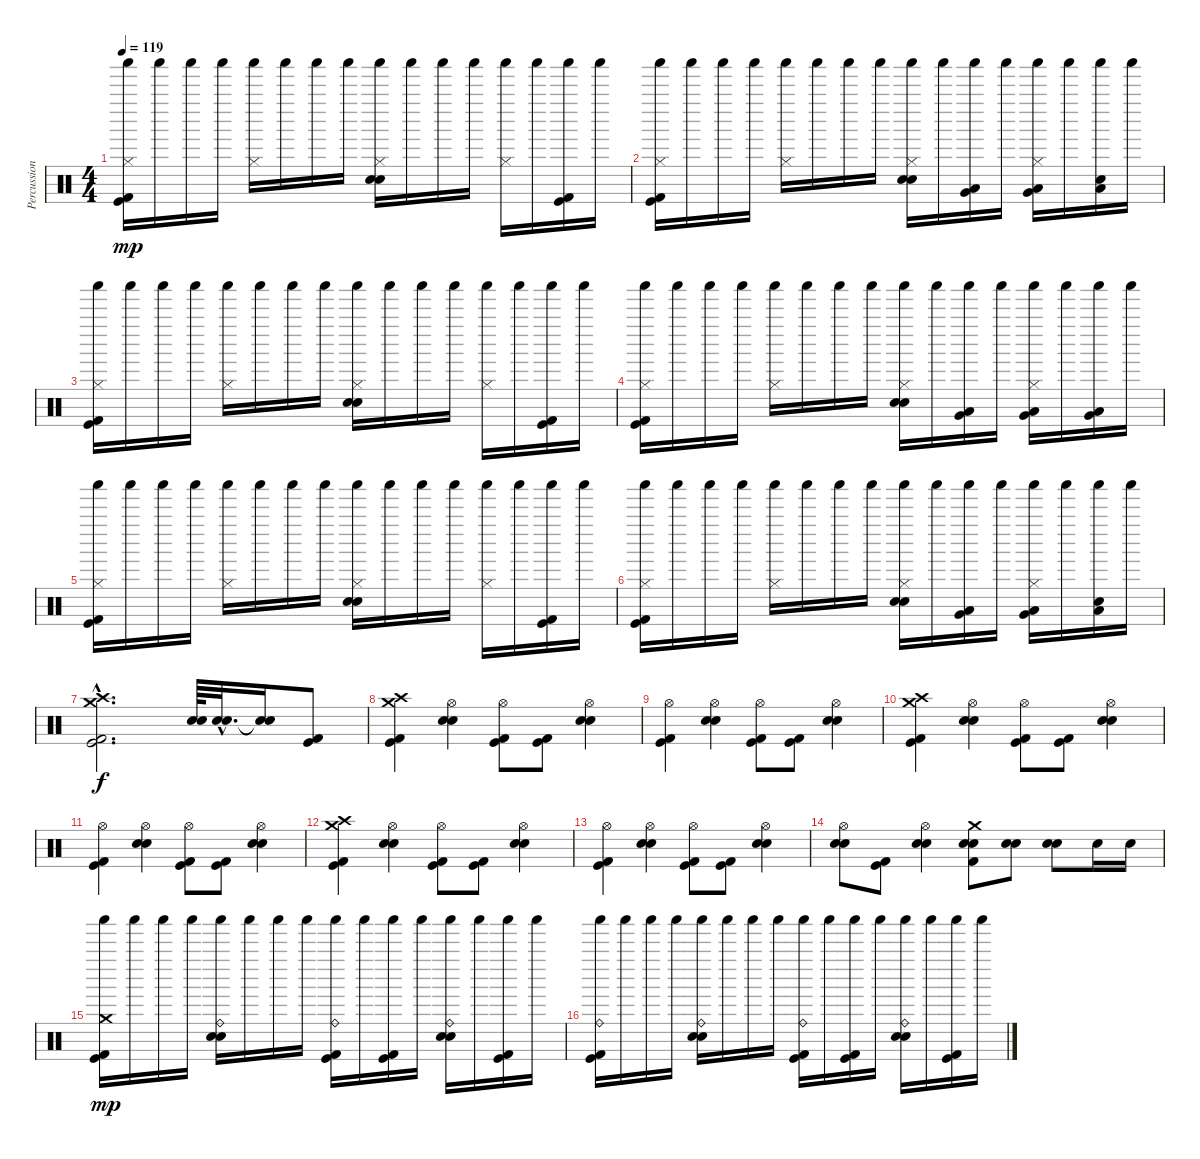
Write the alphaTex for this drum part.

\track ("Percussion" "Percussion") {instrument percussion}
\staff {score}
\articulation defaults
\ts (4 4)
\tempo 119
\clef neutral
\ks c
("Hi-Hat (closed)" "Kick (hit)" "Kick (hit) 2" "Shaker (hit)").16{dy mp} "Shaker (hit)".16 "Shaker (hit)".16 "Shaker (hit)".16 ("Hi-Hat (closed)" "Shaker (hit)").16 "Shaker (hit)".16 "Shaker (hit)".16 "Shaker (hit)".16 ("Hi-Hat (closed)" "Electric Snare (hit)" "Metronome (bell)" "Shaker (hit)").16 "Shaker (hit)".16 "Shaker (hit)".16 "Shaker (hit)".16 ("Hi-Hat (closed)" "Shaker (hit)").16 "Shaker (hit)".16 ("Kick (hit)" "Kick (hit) 2" "Shaker (hit)").16 "Shaker (hit)".16 |
("Hi-Hat (closed)" "Kick (hit)" "Kick (hit) 2" "Shaker (hit)").16 "Shaker (hit)".16 "Shaker (hit)".16 "Shaker (hit)".16 ("Hi-Hat (closed)" "Shaker (hit)").16 "Shaker (hit)".16 "Shaker (hit)".16 "Shaker (hit)".16 ("Hi-Hat (closed)" "Electric Snare (hit)" "Metronome (bell)" "Shaker (hit)").16 "Shaker (hit)".16 ("Low Tom (hit)" "Very Low Tom (hit)" "Shaker (hit)").16 "Shaker (hit)".16 ("Hi-Hat (closed)" "Very Low Tom (hit)" "Low Floor Tom (hit)" "Shaker (hit)").16 "Shaker (hit)".16 ("Low Floor Tom (hit)" "Snare (hit)" "Shaker (hit)").16 "Shaker (hit)".16 |
("Hi-Hat (closed)" "Kick (hit)" "Kick (hit) 2" "Shaker (hit)").16 "Shaker (hit)".16 "Shaker (hit)".16 "Shaker (hit)".16 ("Hi-Hat (closed)" "Shaker (hit)").16 "Shaker (hit)".16 "Shaker (hit)".16 "Shaker (hit)".16 ("Hi-Hat (closed)" "Electric Snare (hit)" "Metronome (bell)" "Shaker (hit)").16 "Shaker (hit)".16 "Shaker (hit)".16 "Shaker (hit)".16 ("Hi-Hat (closed)" "Shaker (hit)").16 "Shaker (hit)".16 ("Kick (hit)" "Kick (hit) 2" "Shaker (hit)").16 "Shaker (hit)".16 |
("Hi-Hat (closed)" "Kick (hit)" "Kick (hit) 2" "Shaker (hit)").16 "Shaker (hit)".16 "Shaker (hit)".16 "Shaker (hit)".16 ("Hi-Hat (closed)" "Shaker (hit)").16 "Shaker (hit)".16 "Shaker (hit)".16 "Shaker (hit)".16 ("Hi-Hat (closed)" "Electric Snare (hit)" "Metronome (bell)" "Shaker (hit)").16 "Shaker (hit)".16 ("Low Tom (hit)" "Very Low Tom (hit)" "Shaker (hit)").16 "Shaker (hit)".16 ("Hi-Hat (closed)" "Low Tom (hit)" "Very Low Tom (hit)" "Shaker (hit)").16 "Shaker (hit)".16 ("Very Low Tom (hit)" "Low Floor Tom (hit)" "Shaker (hit)").16 "Shaker (hit)".16 |
("Hi-Hat (closed)" "Kick (hit)" "Kick (hit) 2" "Shaker (hit)").16 "Shaker (hit)".16 "Shaker (hit)".16 "Shaker (hit)".16 ("Hi-Hat (closed)" "Shaker (hit)").16 "Shaker (hit)".16 "Shaker (hit)".16 "Shaker (hit)".16 ("Hi-Hat (closed)" "Electric Snare (hit)" "Metronome (bell)" "Shaker (hit)").16 "Shaker (hit)".16 "Shaker (hit)".16 "Shaker (hit)".16 ("Hi-Hat (closed)" "Shaker (hit)").16 "Shaker (hit)".16 ("Kick (hit)" "Kick (hit) 2" "Shaker (hit)").16 "Shaker (hit)".16 |
("Hi-Hat (closed)" "Kick (hit)" "Kick (hit) 2" "Shaker (hit)").16 "Shaker (hit)".16 "Shaker (hit)".16 "Shaker (hit)".16 ("Hi-Hat (closed)" "Shaker (hit)").16 "Shaker (hit)".16 "Shaker (hit)".16 "Shaker (hit)".16 ("Hi-Hat (closed)" "Electric Snare (hit)" "Metronome (bell)" "Shaker (hit)").16 "Shaker (hit)".16 ("Low Tom (hit)" "Very Low Tom (hit)" "Shaker (hit)").16 "Shaker (hit)".16 ("Hi-Hat (closed)" "Very Low Tom (hit)" "Low Floor Tom (hit)" "Shaker (hit)").16 "Shaker (hit)".16 ("Low Floor Tom (hit)" "Snare (hit)" "Shaker (hit)").16 "Shaker (hit)".16 |
("Crash medium (hit)"{hac} "Crash high (hit)"{hac} "Kick (hit)"{hac} "Kick (hit) 2"{hac}).2{d dy f} ("Electric Snare (hit)" "Metronome (bell)").64 ("Electric Snare (hit)"{hac} "Metronome (bell)"{hac}).32{d} ("Snare (hit)"{t} "Snare (hit)"{t}).16 ("Kick (hit)" "Kick (hit) 2").8 |
("Crash medium (hit)" "Crash high (hit)" "Kick (hit)" "Kick (hit) 2").4 ("Hi-Hat (open)" "Electric Snare (hit)" "Metronome (bell)").4 ("Hi-Hat (open)" "Kick (hit)" "Kick (hit) 2").8 ("Kick (hit)" "Kick (hit) 2").8 ("Hi-Hat (open)" "Electric Snare (hit)" "Metronome (bell)").4 |
("Hi-Hat (open)" "Kick (hit)" "Kick (hit) 2").4 ("Hi-Hat (open)" "Electric Snare (hit)" "Metronome (bell)").4 ("Hi-Hat (open)" "Kick (hit)" "Kick (hit) 2").8 ("Kick (hit)" "Kick (hit) 2").8 ("Hi-Hat (open)" "Electric Snare (hit)" "Metronome (bell)").4 |
("Crash medium (hit)" "Crash high (hit)" "Kick (hit)" "Kick (hit) 2").4 ("Hi-Hat (open)" "Electric Snare (hit)" "Metronome (bell)").4 ("Hi-Hat (open)" "Kick (hit)" "Kick (hit) 2").8 ("Kick (hit)" "Kick (hit) 2").8 ("Hi-Hat (open)" "Electric Snare (hit)" "Metronome (bell)").4 |
("Hi-Hat (open)" "Kick (hit)" "Kick (hit) 2").4 ("Hi-Hat (open)" "Electric Snare (hit)" "Metronome (bell)").4 ("Hi-Hat (open)" "Kick (hit)" "Kick (hit) 2").8 ("Kick (hit)" "Kick (hit) 2").8 ("Hi-Hat (open)" "Electric Snare (hit)" "Metronome (bell)").4 |
("Crash medium (hit)" "Crash high (hit)" "Kick (hit)" "Kick (hit) 2").4 ("Hi-Hat (open)" "Electric Snare (hit)" "Metronome (bell)").4 ("Hi-Hat (open)" "Kick (hit)" "Kick (hit) 2").8 ("Kick (hit)" "Kick (hit) 2").8 ("Hi-Hat (open)" "Electric Snare (hit)" "Metronome (bell)").4 |
("Hi-Hat (open)" "Kick (hit)" "Kick (hit) 2").4 ("Hi-Hat (open)" "Electric Snare (hit)" "Metronome (bell)").4 ("Hi-Hat (open)" "Kick (hit)" "Kick (hit) 2").8 ("Kick (hit)" "Kick (hit) 2").8 ("Hi-Hat (open)" "Electric Snare (hit)" "Metronome (bell)").4 |
("Hi-Hat (open)" "Electric Snare (hit)" "Metronome (bell)").8 ("Kick (hit)" "Kick (hit) 2").8 ("Hi-Hat (open)" "Electric Snare (hit)" "Metronome (bell)").4 ("Crash medium (hit)" "Electric Snare (hit)" "Metronome (bell)" "Kick (hit) 2").8 ("Electric Snare (hit)" "Metronome (bell)").8 ("Electric Snare (hit)" "Metronome (bell)").8 "Metronome (bell)".16 "Metronome (bell)".16 |
("Crash medium (hit)" "Kick (hit)" "Kick (hit) 2" "Shaker (hit)").16{dy mp} "Shaker (hit)".16 "Shaker (hit)".16 "Shaker (hit)".16 ("Ride (bell)" "Electric Snare (hit)" "Metronome (bell)" "Shaker (hit)").16 "Shaker (hit)".16 "Shaker (hit)".16 "Shaker (hit)".16 ("Ride (bell)" "Kick (hit)" "Kick (hit) 2" "Shaker (hit)").16 "Shaker (hit)".16 ("Kick (hit)" "Kick (hit) 2" "Shaker (hit)").16 "Shaker (hit)".16 ("Ride (bell)" "Electric Snare (hit)" "Metronome (bell)" "Shaker (hit)").16 "Shaker (hit)".16 ("Kick (hit)" "Kick (hit) 2" "Shaker (hit)").16 "Shaker (hit)".16 |
("Ride (bell)" "Kick (hit)" "Kick (hit) 2" "Shaker (hit)").16 "Shaker (hit)".16 "Shaker (hit)".16 "Shaker (hit)".16 ("Ride (bell)" "Electric Snare (hit)" "Metronome (bell)" "Shaker (hit)").16 "Shaker (hit)".16 "Shaker (hit)".16 "Shaker (hit)".16 ("Ride (bell)" "Kick (hit)" "Kick (hit) 2" "Shaker (hit)").16 "Shaker (hit)".16 ("Kick (hit)" "Kick (hit) 2" "Shaker (hit)").16 "Shaker (hit)".16 ("Ride (bell)" "Electric Snare (hit)" "Metronome (bell)" "Shaker (hit)").16 "Shaker (hit)".16 ("Kick (hit)" "Kick (hit) 2" "Shaker (hit)").16 "Shaker (hit)".16
